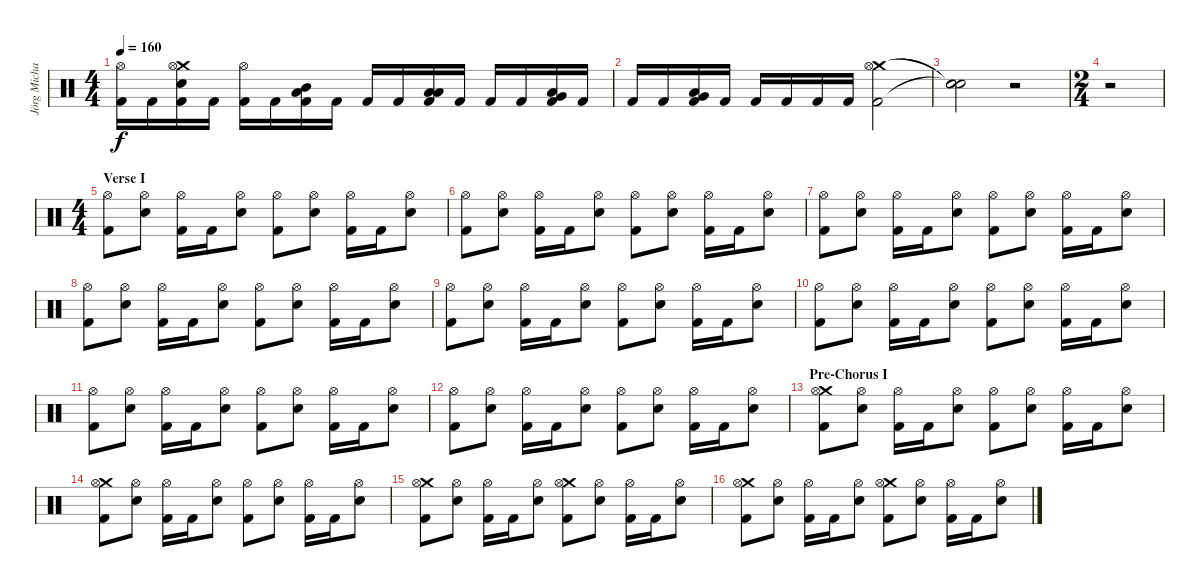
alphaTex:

\track ("Jörg Michael" "Jörg Micha") {instrument percussion}
\staff {score}
\articulation defaults
\ts (4 4)
\tempo 160
\clef neutral
\ks c
("Hi-Hat (open)" "Kick (hit) 2").16{dy f} "Kick (hit) 2".16 ("Crash medium (hit)" "Electric Snare (hit)" "Hi-Hat (open)" "Kick (hit) 2").16 "Kick (hit) 2".16 ("Hi-Hat (open)" "Kick (hit) 2").16 "Kick (hit) 2".16 ("Mid Tom (hit)" "Low Floor Tom (hit)" "Kick (hit) 2").16 "Kick (hit) 2".16 "Kick (hit) 2".16 "Kick (hit) 2".16 ("Low Tom (hit)" "Low Floor Tom (hit)" "Kick (hit) 2").16 "Kick (hit) 2".16 "Kick (hit) 2".16 "Kick (hit) 2".16 ("Very Low Tom (hit)" "Low Floor Tom (hit)" "Kick (hit) 2").16 "Kick (hit) 2".16 |
"Kick (hit) 2".16 "Kick (hit) 2".16 ("Low Floor Tom (hit)" "Very Low Tom (hit)" "Kick (hit) 2").16 "Kick (hit) 2".16 "Kick (hit) 2".16 "Kick (hit) 2".16 "Kick (hit) 2".16 "Kick (hit) 2".16 ("Crash medium (hit)" "Hi-Hat (open)" "Kick (hit) 2").2 |
("Snare (hit)"{t} "Snare (hit)"{t} "Snare (hit)"{t}).2 r.2 |
\ts (2 4)
r.2 |
\ts (4 4)
\section ("" "Verse I")
("Hi-Hat (open)" "Kick (hit) 2").8 ("Hi-Hat (open)" "Electric Snare (hit)").8 ("Hi-Hat (open)" "Kick (hit) 2").16 "Kick (hit) 2".16 ("Hi-Hat (open)" "Electric Snare (hit)").8 ("Hi-Hat (open)" "Kick (hit) 2").8 ("Hi-Hat (open)" "Electric Snare (hit)").8 ("Hi-Hat (open)" "Kick (hit) 2").16 "Kick (hit) 2".16 ("Hi-Hat (open)" "Electric Snare (hit)").8 |
("Hi-Hat (open)" "Kick (hit) 2").8 ("Hi-Hat (open)" "Electric Snare (hit)").8 ("Hi-Hat (open)" "Kick (hit) 2").16 "Kick (hit) 2".16 ("Hi-Hat (open)" "Electric Snare (hit)").8 ("Hi-Hat (open)" "Kick (hit) 2").8 ("Hi-Hat (open)" "Electric Snare (hit)").8 ("Hi-Hat (open)" "Kick (hit) 2").16 "Kick (hit) 2".16 ("Hi-Hat (open)" "Electric Snare (hit)").8 |
("Hi-Hat (open)" "Kick (hit) 2").8 ("Hi-Hat (open)" "Electric Snare (hit)").8 ("Hi-Hat (open)" "Kick (hit) 2").16 "Kick (hit) 2".16 ("Hi-Hat (open)" "Electric Snare (hit)").8 ("Hi-Hat (open)" "Kick (hit) 2").8 ("Hi-Hat (open)" "Electric Snare (hit)").8 ("Hi-Hat (open)" "Kick (hit) 2").16 "Kick (hit) 2".16 ("Hi-Hat (open)" "Electric Snare (hit)").8 |
("Hi-Hat (open)" "Kick (hit) 2").8 ("Hi-Hat (open)" "Electric Snare (hit)").8 ("Hi-Hat (open)" "Kick (hit) 2").16 "Kick (hit) 2".16 ("Hi-Hat (open)" "Electric Snare (hit)").8 ("Hi-Hat (open)" "Kick (hit) 2").8 ("Hi-Hat (open)" "Electric Snare (hit)").8 ("Hi-Hat (open)" "Kick (hit) 2").16 "Kick (hit) 2".16 ("Hi-Hat (open)" "Electric Snare (hit)").8 |
("Hi-Hat (open)" "Kick (hit) 2").8 ("Hi-Hat (open)" "Electric Snare (hit)").8 ("Hi-Hat (open)" "Kick (hit) 2").16 "Kick (hit) 2".16 ("Hi-Hat (open)" "Electric Snare (hit)").8 ("Hi-Hat (open)" "Kick (hit) 2").8 ("Hi-Hat (open)" "Electric Snare (hit)").8 ("Hi-Hat (open)" "Kick (hit) 2").16 "Kick (hit) 2".16 ("Hi-Hat (open)" "Electric Snare (hit)").8 |
("Hi-Hat (open)" "Kick (hit) 2").8 ("Hi-Hat (open)" "Electric Snare (hit)").8 ("Hi-Hat (open)" "Kick (hit) 2").16 "Kick (hit) 2".16 ("Hi-Hat (open)" "Electric Snare (hit)").8 ("Hi-Hat (open)" "Kick (hit) 2").8 ("Hi-Hat (open)" "Electric Snare (hit)").8 ("Hi-Hat (open)" "Kick (hit) 2").16 "Kick (hit) 2".16 ("Hi-Hat (open)" "Electric Snare (hit)").8 |
("Hi-Hat (open)" "Kick (hit) 2").8 ("Hi-Hat (open)" "Electric Snare (hit)").8 ("Hi-Hat (open)" "Kick (hit) 2").16 "Kick (hit) 2".16 ("Hi-Hat (open)" "Electric Snare (hit)").8 ("Hi-Hat (open)" "Kick (hit) 2").8 ("Hi-Hat (open)" "Electric Snare (hit)").8 ("Hi-Hat (open)" "Kick (hit) 2").16 "Kick (hit) 2".16 ("Hi-Hat (open)" "Electric Snare (hit)").8 |
("Hi-Hat (open)" "Kick (hit) 2").8 ("Hi-Hat (open)" "Electric Snare (hit)").8 ("Hi-Hat (open)" "Kick (hit) 2").16 "Kick (hit) 2".16 ("Hi-Hat (open)" "Electric Snare (hit)").8 ("Hi-Hat (open)" "Kick (hit) 2").8 ("Hi-Hat (open)" "Electric Snare (hit)").8 ("Hi-Hat (open)" "Kick (hit) 2").16 "Kick (hit) 2".16 ("Hi-Hat (open)" "Electric Snare (hit)").8 |
\section ("" "Pre-Chorus I")
("Crash medium (hit)" "Hi-Hat (open)" "Kick (hit) 2").8 ("Hi-Hat (open)" "Electric Snare (hit)").8 ("Hi-Hat (open)" "Kick (hit) 2").16 "Kick (hit) 2".16 ("Hi-Hat (open)" "Electric Snare (hit)").8 ("Hi-Hat (open)" "Kick (hit) 2").8 ("Hi-Hat (open)" "Electric Snare (hit)").8 ("Hi-Hat (open)" "Kick (hit) 2").16 "Kick (hit) 2".16 ("Hi-Hat (open)" "Electric Snare (hit)").8 |
("Crash medium (hit)" "Hi-Hat (open)" "Kick (hit) 2").8 ("Hi-Hat (open)" "Electric Snare (hit)").8 ("Hi-Hat (open)" "Kick (hit) 2").16 "Kick (hit) 2".16 ("Hi-Hat (open)" "Electric Snare (hit)").8 ("Hi-Hat (open)" "Kick (hit) 2").8 ("Hi-Hat (open)" "Electric Snare (hit)").8 ("Hi-Hat (open)" "Kick (hit) 2").16 "Kick (hit) 2".16 ("Hi-Hat (open)" "Electric Snare (hit)").8 |
("Crash medium (hit)" "Hi-Hat (open)" "Kick (hit) 2").8 ("Hi-Hat (open)" "Electric Snare (hit)").8 ("Hi-Hat (open)" "Kick (hit) 2").16 "Kick (hit) 2".16 ("Hi-Hat (open)" "Electric Snare (hit)").8 ("Crash medium (hit)" "Hi-Hat (open)" "Kick (hit) 2").8 ("Hi-Hat (open)" "Electric Snare (hit)").8 ("Hi-Hat (open)" "Kick (hit) 2").16 "Kick (hit) 2".16 ("Hi-Hat (open)" "Electric Snare (hit)").8 |
("Crash medium (hit)" "Hi-Hat (open)" "Kick (hit) 2").8 ("Hi-Hat (open)" "Electric Snare (hit)").8 ("Hi-Hat (open)" "Kick (hit) 2").16 "Kick (hit) 2".16 ("Hi-Hat (open)" "Electric Snare (hit)").8 ("Crash medium (hit)" "Hi-Hat (open)" "Kick (hit) 2").8 ("Hi-Hat (open)" "Electric Snare (hit)").8 ("Hi-Hat (open)" "Kick (hit) 2").16 "Kick (hit) 2".16 ("Hi-Hat (open)" "Electric Snare (hit)").8
